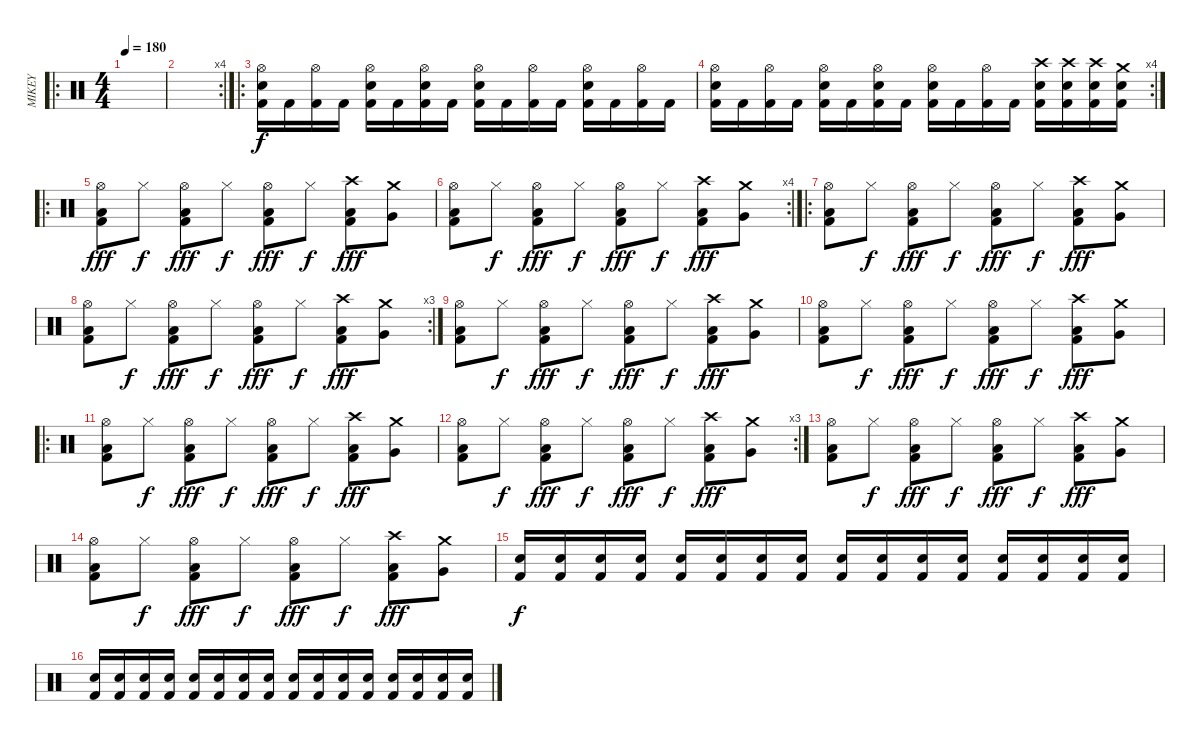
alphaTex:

\track ("MIKEY" "MIKEY") {instrument percussion}
\staff {score}
\articulation defaults
\ro
\ts (4 4)
\tempo 180
\clef neutral
\ks c
|
\rc 4
|
\ro
("Hi-Hat (open)" "Electric Snare (hit)" "Kick (hit) 2").16 "Kick (hit) 2".16 ("Hi-Hat (open)" "Kick (hit) 2").16 "Kick (hit) 2".16 ("Hi-Hat (open)" "Electric Snare (hit)" "Kick (hit) 2").16 "Kick (hit) 2".16 ("Hi-Hat (open)" "Electric Snare (hit)" "Kick (hit) 2").16 "Kick (hit) 2".16 ("Hi-Hat (open)" "Electric Snare (hit)" "Kick (hit) 2").16 "Kick (hit) 2".16 ("Hi-Hat (open)" "Kick (hit) 2").16 "Kick (hit) 2".16 ("Hi-Hat (open)" "Electric Snare (hit)" "Kick (hit) 2").16 "Kick (hit) 2".16 ("Hi-Hat (open)" "Kick (hit) 2").16 "Kick (hit) 2".16 |
\rc 4
("Hi-Hat (open)" "Electric Snare (hit)" "Kick (hit) 2").16 "Kick (hit) 2".16 ("Hi-Hat (open)" "Kick (hit) 2").16 "Kick (hit) 2".16 ("Hi-Hat (open)" "Electric Snare (hit)" "Kick (hit) 2").16 "Kick (hit) 2".16 ("Hi-Hat (open)" "Electric Snare (hit)" "Kick (hit) 2").16 "Kick (hit) 2".16 ("Hi-Hat (open)" "Electric Snare (hit)" "Kick (hit) 2").16 "Kick (hit) 2".16 ("Hi-Hat (open)" "Kick (hit) 2").16 "Kick (hit) 2".16 ("Crash high (hit)" "Electric Snare (hit)" "Kick (hit) 2").16 ("Crash high (hit)" "Electric Snare (hit)" "Kick (hit) 2").16 ("Crash high (hit)" "Electric Snare (hit)" "Kick (hit) 2").16 ("Crash medium (hit)" "Electric Snare (hit)" "Kick (hit) 2").16 |
\ro
("Low Floor Tom (hit)" "Kick (hit) 2" "Hi-Hat (open)").8{dy fff} "Hi-Hat (closed)".8{dy f} ("Low Floor Tom (hit)" "Kick (hit) 2" "Hi-Hat (open)").8{dy fff} "Hi-Hat (closed)".8{dy f} ("Low Floor Tom (hit)" "Kick (hit) 2" "Hi-Hat (open)").8{dy fff} "Hi-Hat (closed)".8{dy f} ("Low Floor Tom (hit)" "Kick (hit) 2" "Crash high (hit)").8{dy fff} ("Very Low Tom (hit)" "Crash medium (hit)").8 |
\rc 4
("Low Floor Tom (hit)" "Kick (hit) 2" "Hi-Hat (open)").8 "Hi-Hat (closed)".8{dy f} ("Low Floor Tom (hit)" "Kick (hit) 2" "Hi-Hat (open)").8{dy fff} "Hi-Hat (closed)".8{dy f} ("Low Floor Tom (hit)" "Kick (hit) 2" "Hi-Hat (open)").8{dy fff} "Hi-Hat (closed)".8{dy f} ("Low Floor Tom (hit)" "Kick (hit) 2" "Crash high (hit)").8{dy fff} ("Very Low Tom (hit)" "Crash medium (hit)").8 |
\ro
("Low Floor Tom (hit)" "Kick (hit) 2" "Hi-Hat (open)").8 "Hi-Hat (closed)".8{dy f} ("Low Floor Tom (hit)" "Kick (hit) 2" "Hi-Hat (open)").8{dy fff} "Hi-Hat (closed)".8{dy f} ("Low Floor Tom (hit)" "Kick (hit) 2" "Hi-Hat (open)").8{dy fff} "Hi-Hat (closed)".8{dy f} ("Low Floor Tom (hit)" "Kick (hit) 2" "Crash high (hit)").8{dy fff} ("Very Low Tom (hit)" "Crash medium (hit)").8 |
\rc 3
("Low Floor Tom (hit)" "Kick (hit) 2" "Hi-Hat (open)").8 "Hi-Hat (closed)".8{dy f} ("Low Floor Tom (hit)" "Kick (hit) 2" "Hi-Hat (open)").8{dy fff} "Hi-Hat (closed)".8{dy f} ("Low Floor Tom (hit)" "Kick (hit) 2" "Hi-Hat (open)").8{dy fff} "Hi-Hat (closed)".8{dy f} ("Low Floor Tom (hit)" "Kick (hit) 2" "Crash high (hit)").8{dy fff} ("Very Low Tom (hit)" "Crash medium (hit)").8 |
("Low Floor Tom (hit)" "Kick (hit) 2" "Hi-Hat (open)").8 "Hi-Hat (closed)".8{dy f} ("Low Floor Tom (hit)" "Kick (hit) 2" "Hi-Hat (open)").8{dy fff} "Hi-Hat (closed)".8{dy f} ("Low Floor Tom (hit)" "Kick (hit) 2" "Hi-Hat (open)").8{dy fff} "Hi-Hat (closed)".8{dy f} ("Low Floor Tom (hit)" "Kick (hit) 2" "Crash high (hit)").8{dy fff} ("Very Low Tom (hit)" "Crash medium (hit)").8 |
("Low Floor Tom (hit)" "Kick (hit) 2" "Hi-Hat (open)").8 "Hi-Hat (closed)".8{dy f} ("Low Floor Tom (hit)" "Kick (hit) 2" "Hi-Hat (open)").8{dy fff} "Hi-Hat (closed)".8{dy f} ("Low Floor Tom (hit)" "Kick (hit) 2" "Hi-Hat (open)").8{dy fff} "Hi-Hat (closed)".8{dy f} ("Low Floor Tom (hit)" "Kick (hit) 2" "Crash high (hit)").8{dy fff} ("Very Low Tom (hit)" "Crash medium (hit)").8 |
\ro
("Low Floor Tom (hit)" "Kick (hit) 2" "Hi-Hat (open)").8 "Hi-Hat (closed)".8{dy f} ("Low Floor Tom (hit)" "Kick (hit) 2" "Hi-Hat (open)").8{dy fff} "Hi-Hat (closed)".8{dy f} ("Low Floor Tom (hit)" "Kick (hit) 2" "Hi-Hat (open)").8{dy fff} "Hi-Hat (closed)".8{dy f} ("Low Floor Tom (hit)" "Kick (hit) 2" "Crash high (hit)").8{dy fff} ("Very Low Tom (hit)" "Crash medium (hit)").8 |
\rc 3
("Low Floor Tom (hit)" "Kick (hit) 2" "Hi-Hat (open)").8 "Hi-Hat (closed)".8{dy f} ("Low Floor Tom (hit)" "Kick (hit) 2" "Hi-Hat (open)").8{dy fff} "Hi-Hat (closed)".8{dy f} ("Low Floor Tom (hit)" "Kick (hit) 2" "Hi-Hat (open)").8{dy fff} "Hi-Hat (closed)".8{dy f} ("Low Floor Tom (hit)" "Kick (hit) 2" "Crash high (hit)").8{dy fff} ("Very Low Tom (hit)" "Crash medium (hit)").8 |
("Low Floor Tom (hit)" "Kick (hit) 2" "Hi-Hat (open)").8 "Hi-Hat (closed)".8{dy f} ("Low Floor Tom (hit)" "Kick (hit) 2" "Hi-Hat (open)").8{dy fff} "Hi-Hat (closed)".8{dy f} ("Low Floor Tom (hit)" "Kick (hit) 2" "Hi-Hat (open)").8{dy fff} "Hi-Hat (closed)".8{dy f} ("Low Floor Tom (hit)" "Kick (hit) 2" "Crash high (hit)").8{dy fff} ("Very Low Tom (hit)" "Crash medium (hit)").8 |
("Low Floor Tom (hit)" "Kick (hit) 2" "Hi-Hat (open)").8 "Hi-Hat (closed)".8{dy f} ("Low Floor Tom (hit)" "Kick (hit) 2" "Hi-Hat (open)").8{dy fff} "Hi-Hat (closed)".8{dy f} ("Low Floor Tom (hit)" "Kick (hit) 2" "Hi-Hat (open)").8{dy fff} "Hi-Hat (closed)".8{dy f} ("Low Floor Tom (hit)" "Kick (hit) 2" "Crash high (hit)").8{dy fff} ("Very Low Tom (hit)" "Crash medium (hit)").8 |
("Kick (hit) 2" "Electric Snare (hit)").16{dy f} ("Kick (hit) 2" "Electric Snare (hit)").16 ("Kick (hit) 2" "Electric Snare (hit)").16 ("Kick (hit) 2" "Electric Snare (hit)").16 ("Kick (hit) 2" "Electric Snare (hit)").16 ("Kick (hit) 2" "Electric Snare (hit)").16 ("Kick (hit) 2" "Electric Snare (hit)").16 ("Kick (hit) 2" "Electric Snare (hit)").16 ("Kick (hit) 2" "Electric Snare (hit)").16 ("Kick (hit) 2" "Electric Snare (hit)").16 ("Kick (hit) 2" "Electric Snare (hit)").16 ("Kick (hit) 2" "Electric Snare (hit)").16 ("Kick (hit) 2" "Electric Snare (hit)").16 ("Kick (hit) 2" "Electric Snare (hit)").16 ("Kick (hit) 2" "Electric Snare (hit)").16 ("Kick (hit) 2" "Electric Snare (hit)").16 |
("Kick (hit) 2" "Electric Snare (hit)").16 ("Kick (hit) 2" "Electric Snare (hit)").16 ("Kick (hit) 2" "Electric Snare (hit)").16 ("Kick (hit) 2" "Electric Snare (hit)").16 ("Kick (hit) 2" "Electric Snare (hit)").16 ("Kick (hit) 2" "Electric Snare (hit)").16 ("Kick (hit) 2" "Electric Snare (hit)").16 ("Kick (hit) 2" "Electric Snare (hit)").16 ("Kick (hit) 2" "Electric Snare (hit)").16 ("Kick (hit) 2" "Electric Snare (hit)").16 ("Kick (hit) 2" "Electric Snare (hit)").16 ("Kick (hit) 2" "Electric Snare (hit)").16 ("Kick (hit) 2" "Electric Snare (hit)").16 ("Kick (hit) 2" "Electric Snare (hit)").16 ("Kick (hit) 2" "Electric Snare (hit)").16 ("Kick (hit) 2" "Electric Snare (hit)").16
